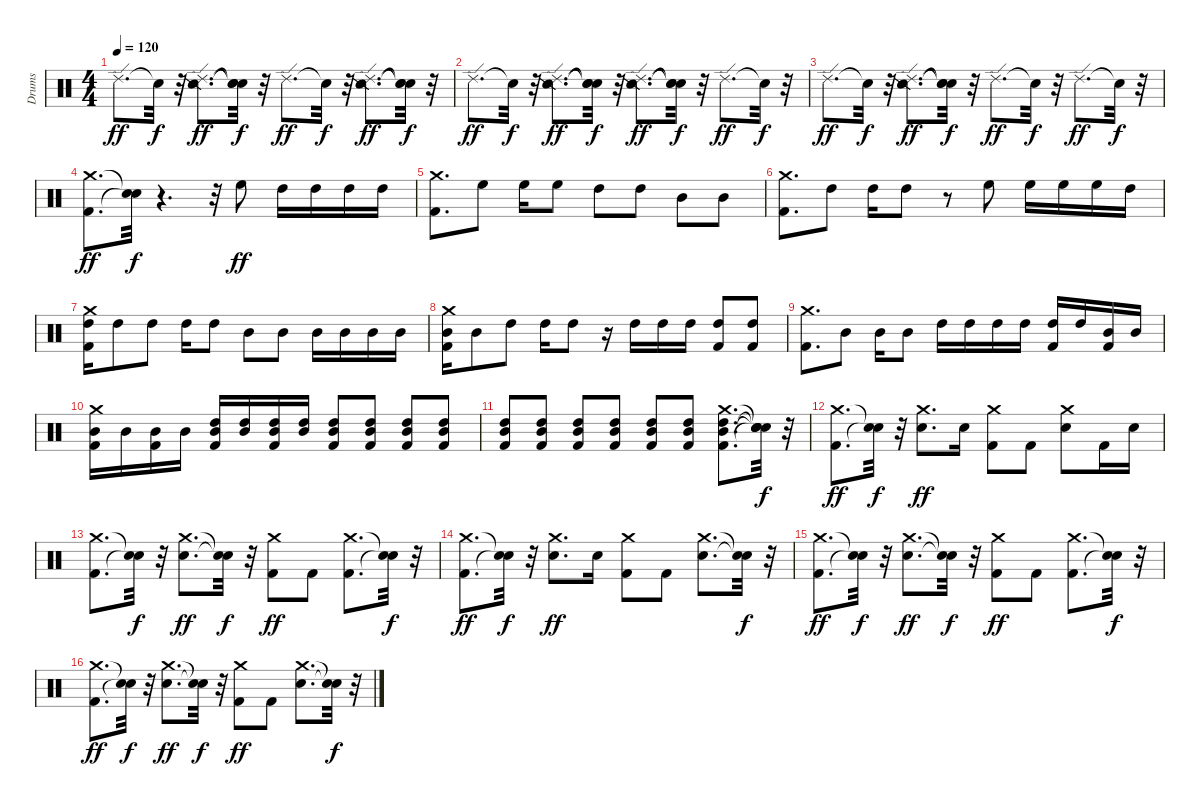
\track ("Drums" "Drums") {instrument percussion}
\staff {score}
\articulation defaults
\ts (4 4)
\tempo 120
\clef neutral
\ks c "Ride (edge) 2".8{d dy ff} "Snare (hit)"{t}.32{dy f}
r.32 ("Snare (side stick) 2" "Snare (side stick) 2" "Ride (edge) 2").8{d dy ff} ("Snare (hit)"{t} "Snare (hit)"{t} "Snare (hit)"{t}).32{dy f} r.32 "Ride (edge) 2".8{d dy ff} "Snare (hit)"{t}.32{dy f} r.32 ("Snare (side stick) 2" "Snare (side stick) 2" "Ride (edge) 2").8{d dy ff} ("Snare (hit)"{t} "Snare (hit)"{t} "Snare (hit)"{t}).32{dy f} r.32 |
"Ride (edge) 2".8{d dy ff} "Snare (hit)"{t}.32{dy f} r.32 ("Snare (side stick) 2" "Snare (side stick) 2" "Ride (edge) 2").8{d dy ff} ("Snare (hit)"{t} "Snare (hit)"{t} "Snare (hit)"{t}).32{dy f} r.32 ("Snare (side stick) 2" "Snare (side stick) 2" "Ride (edge) 2").8{d dy ff} ("Snare (hit)"{t} "Snare (hit)"{t} "Snare (hit)"{t}).32{dy f} r.32 "Ride (edge) 2".8{d dy ff} "Snare (hit)"{t}.32{dy f} r.32 |
"Ride (edge) 2".8{d dy ff} "Snare (hit)"{t}.32{dy f} r.32 ("Snare (side stick) 2" "Snare (side stick) 2" "Ride (edge) 2").8{d dy ff} ("Snare (hit)"{t} "Snare (hit)"{t} "Snare (hit)"{t}).32{dy f} r.32 "Ride (edge) 2".8{d dy ff} "Snare (hit)"{t}.32{dy f} r.32 "Ride (edge) 2".8{d dy ff} "Snare (hit)"{t}.32{dy f} r.32 |
("Crash medium (hit)" "Kick (hit) 2").8{d dy ff} ("Snare (hit)"{t} "Snare (hit)"{t}).32{dy f} r.4{d} r.32 "High Floor Tom (hit)".8{dy ff} "High Tom (hit)".16 "High Tom (hit)".16 "High Tom (hit)".16 "High Tom (hit)".16 |
("Crash medium (hit)" "Kick (hit) 2").8{d} "High Floor Tom (hit)".8 "High Floor Tom (hit)".16 "High Floor Tom (hit)".8 "High Tom (hit)".8 "High Tom (hit)".8 "Mid Tom (hit)".8 "Mid Tom (hit)".8 |
("Crash medium (hit)" "Kick (hit) 2").8{d} "High Tom (hit)".8 "High Tom (hit)".16 "High Tom (hit)".8 r.8 "High Floor Tom (hit)".8 "High Floor Tom (hit)".16 "High Floor Tom (hit)".16 "High Floor Tom (hit)".16 "High Tom (hit)".16 |
("Crash medium (hit)" "Kick (hit) 2" "High Tom (hit)").16 "High Tom (hit)".8 "High Tom (hit)".8 "High Tom (hit)".16 "High Tom (hit)".8 "Mid Tom (hit)".8 "Mid Tom (hit)".8 "Mid Tom (hit)".16 "Mid Tom (hit)".16 "Mid Tom (hit)".16 "Mid Tom (hit)".16 |
("Crash medium (hit)" "Kick (hit) 2" "Mid Tom (hit)").16 "Mid Tom (hit)".8 "High Tom (hit)".8 "High Tom (hit)".16 "High Tom (hit)".8 r.16 "High Tom (hit)".16 "High Tom (hit)".16 "High Tom (hit)".16 ("Kick (hit) 2" "High Tom (hit)").8 ("Kick (hit) 2" "High Tom (hit)").8 |
("Crash medium (hit)" "Kick (hit) 2").8{d} "Mid Tom (hit)".8 "Mid Tom (hit)".16 "Mid Tom (hit)".8 "High Tom (hit)".16 "High Tom (hit)".16 "High Tom (hit)".16 "High Tom (hit)".16 ("Kick (hit) 2" "High Tom (hit)").16 "High Tom (hit)".16 ("Kick (hit) 2" "Mid Tom (hit)").16 "Mid Tom (hit)".16 |
("Crash medium (hit)" "Kick (hit) 2" "Mid Tom (hit)").16 "Mid Tom (hit)".16 ("Kick (hit) 2" "Mid Tom (hit)").16 "Mid Tom (hit)".16 ("Kick (hit) 2" "Mid Tom (hit)" "High Tom (hit)").16 ("Mid Tom (hit)" "High Tom (hit)").16 ("Kick (hit) 2" "Mid Tom (hit)" "High Tom (hit)").16 ("Mid Tom (hit)" "High Tom (hit)").16 ("Kick (hit) 2" "Mid Tom (hit)" "High Tom (hit)").8 ("Kick (hit) 2" "Mid Tom (hit)" "High Tom (hit)").8 ("Kick (hit) 2" "Mid Tom (hit)" "High Tom (hit)").8 ("Kick (hit) 2" "Mid Tom (hit)" "High Tom (hit)").8 |
("Kick (hit) 2" "Mid Tom (hit)" "High Tom (hit)").8 ("Kick (hit) 2" "Mid Tom (hit)" "High Tom (hit)").8 ("Kick (hit) 2" "Mid Tom (hit)" "High Tom (hit)").8 ("Kick (hit) 2" "Mid Tom (hit)" "High Tom (hit)").8 ("Kick (hit) 2" "Mid Tom (hit)" "High Tom (hit)").8 ("Kick (hit) 2" "Mid Tom (hit)" "High Tom (hit)").8 ("Crash medium (hit)" "Kick (hit) 2" "Mid Tom (hit)" "High Tom (hit)").8{d} ("Snare (hit)"{t} "Snare (hit)"{t} "Snare (hit)"{t} "Snare (hit)"{t}).32{dy f} r.32 |
("Crash medium (hit)" "Kick (hit) 2").8{d dy ff} ("Snare (hit)"{t} "Snare (hit)"{t}).32{dy f} r.32 ("Crash medium (hit)" "Snare (hit) 2").8{d dy ff} "Snare (hit) 2".16 ("Crash medium (hit)" "Kick (hit) 2").8 "Kick (hit) 2".8 ("Crash medium (hit)" "Snare (hit) 2").8 "Kick (hit) 2".16 "Snare (hit) 2".16 |
("Crash medium (hit)" "Kick (hit) 2").8{d} ("Snare (hit)"{t} "Snare (hit)"{t}).32{dy f} r.32 ("Crash medium (hit)" "Snare (hit) 2").8{d dy ff} ("Snare (hit)"{t} "Snare (hit)"{t}).32{dy f} r.32 ("Crash medium (hit)" "Kick (hit) 2").8{dy ff} "Kick (hit) 2".8 ("Crash medium (hit)" "Kick (hit) 2").8{d} ("Snare (hit)"{t} "Snare (hit)"{t}).32{dy f} r.32 |
("Crash medium (hit)" "Kick (hit) 2").8{d dy ff} ("Snare (hit)"{t} "Snare (hit)"{t}).32{dy f} r.32 ("Crash medium (hit)" "Snare (hit) 2").8{d dy ff} "Snare (hit) 2".16 ("Crash medium (hit)" "Kick (hit) 2").8 "Kick (hit) 2".8 ("Crash medium (hit)" "Snare (hit) 2").8{d} ("Snare (hit)"{t} "Snare (hit)"{t}).32{dy f} r.32 |
("Crash medium (hit)" "Kick (hit) 2").8{d dy ff} ("Snare (hit)"{t} "Snare (hit)"{t}).32{dy f} r.32 ("Crash medium (hit)" "Snare (hit) 2").8{d dy ff} ("Snare (hit)"{t} "Snare (hit)"{t}).32{dy f} r.32 ("Crash medium (hit)" "Kick (hit) 2").8{dy ff} "Kick (hit) 2".8 ("Crash medium (hit)" "Kick (hit) 2").8{d} ("Snare (hit)"{t} "Snare (hit)"{t}).32{dy f} r.32 |
("Crash medium (hit)" "Kick (hit) 2").8{d dy ff} ("Snare (hit)"{t} "Snare (hit)"{t}).32{dy f} r.32 ("Crash medium (hit)" "Snare (hit) 2").8{d dy ff} ("Snare (hit)"{t} "Snare (hit)"{t}).32{dy f} r.32 ("Crash medium (hit)" "Kick (hit) 2").8{dy ff} "Kick (hit) 2".8 ("Crash medium (hit)" "Snare (hit) 2").8{d} ("Snare (hit)"{t} "Snare (hit)"{t}).32{dy f} r.32
